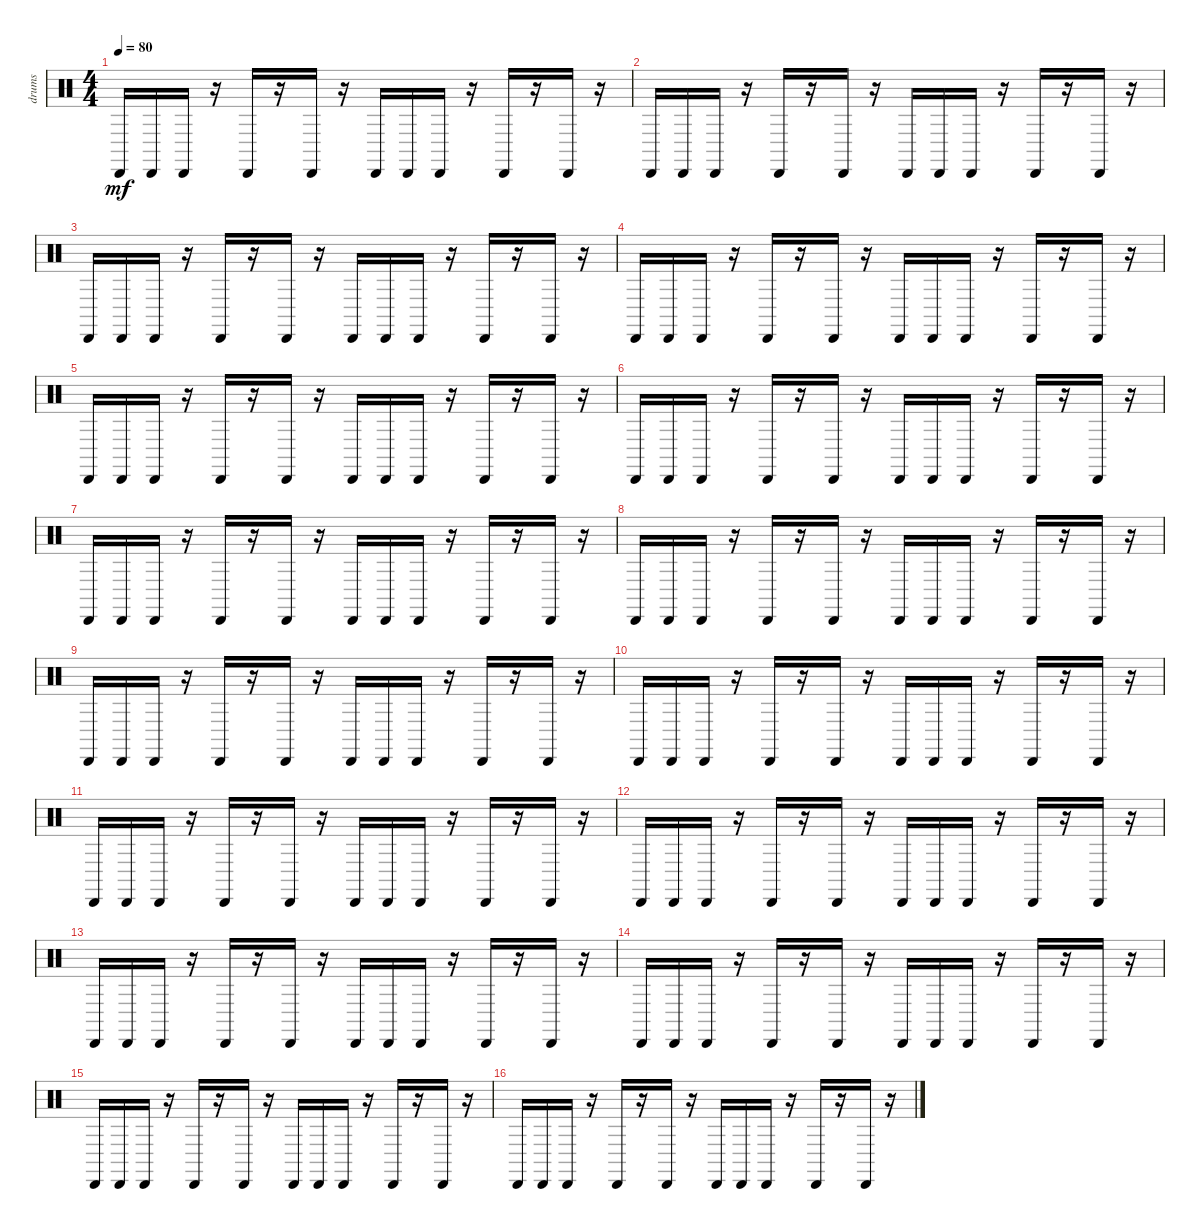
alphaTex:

\track ("drums" "drums") {instrument percussion}
\staff {score}
\articulation defaults
\ts (4 4)
\tempo 80
\clef neutral
\ks c "Cabasa (hit)".16{dy mf} "Cabasa (hit)".16 "Cabasa (hit)".16
r.16 "Cabasa (hit)".16 r.16 "Cabasa (hit)".16 r.16 "Cabasa (hit)".16 "Cabasa (hit)".16 "Cabasa (hit)".16 r.16 "Cabasa (hit)".16 r.16 "Cabasa (hit)".16 r.16 |
"Cabasa (hit)".16 "Cabasa (hit)".16 "Cabasa (hit)".16 r.16 "Cabasa (hit)".16 r.16 "Cabasa (hit)".16 r.16 "Cabasa (hit)".16 "Cabasa (hit)".16 "Cabasa (hit)".16 r.16 "Cabasa (hit)".16 r.16 "Cabasa (hit)".16 r.16 |
"Cabasa (hit)".16 "Cabasa (hit)".16 "Cabasa (hit)".16 r.16 "Cabasa (hit)".16 r.16 "Cabasa (hit)".16 r.16 "Cabasa (hit)".16 "Cabasa (hit)".16 "Cabasa (hit)".16 r.16 "Cabasa (hit)".16 r.16 "Cabasa (hit)".16 r.16 |
"Cabasa (hit)".16 "Cabasa (hit)".16 "Cabasa (hit)".16 r.16 "Cabasa (hit)".16 r.16 "Cabasa (hit)".16 r.16 "Cabasa (hit)".16 "Cabasa (hit)".16 "Cabasa (hit)".16 r.16 "Cabasa (hit)".16 r.16 "Cabasa (hit)".16 r.16 |
"Cabasa (hit)".16 "Cabasa (hit)".16 "Cabasa (hit)".16 r.16 "Cabasa (hit)".16 r.16 "Cabasa (hit)".16 r.16 "Cabasa (hit)".16 "Cabasa (hit)".16 "Cabasa (hit)".16 r.16 "Cabasa (hit)".16 r.16 "Cabasa (hit)".16 r.16 |
"Cabasa (hit)".16 "Cabasa (hit)".16 "Cabasa (hit)".16 r.16 "Cabasa (hit)".16 r.16 "Cabasa (hit)".16 r.16 "Cabasa (hit)".16 "Cabasa (hit)".16 "Cabasa (hit)".16 r.16 "Cabasa (hit)".16 r.16 "Cabasa (hit)".16 r.16 |
"Cabasa (hit)".16 "Cabasa (hit)".16 "Cabasa (hit)".16 r.16 "Cabasa (hit)".16 r.16 "Cabasa (hit)".16 r.16 "Cabasa (hit)".16 "Cabasa (hit)".16 "Cabasa (hit)".16 r.16 "Cabasa (hit)".16 r.16 "Cabasa (hit)".16 r.16 |
"Cabasa (hit)".16 "Cabasa (hit)".16 "Cabasa (hit)".16 r.16 "Cabasa (hit)".16 r.16 "Cabasa (hit)".16 r.16 "Cabasa (hit)".16 "Cabasa (hit)".16 "Cabasa (hit)".16 r.16 "Cabasa (hit)".16 r.16 "Cabasa (hit)".16 r.16 |
"Cabasa (hit)".16 "Cabasa (hit)".16 "Cabasa (hit)".16 r.16 "Cabasa (hit)".16 r.16 "Cabasa (hit)".16 r.16 "Cabasa (hit)".16 "Cabasa (hit)".16 "Cabasa (hit)".16 r.16 "Cabasa (hit)".16 r.16 "Cabasa (hit)".16 r.16 |
"Cabasa (hit)".16 "Cabasa (hit)".16 "Cabasa (hit)".16 r.16 "Cabasa (hit)".16 r.16 "Cabasa (hit)".16 r.16 "Cabasa (hit)".16 "Cabasa (hit)".16 "Cabasa (hit)".16 r.16 "Cabasa (hit)".16 r.16 "Cabasa (hit)".16 r.16 |
"Cabasa (hit)".16 "Cabasa (hit)".16 "Cabasa (hit)".16 r.16 "Cabasa (hit)".16 r.16 "Cabasa (hit)".16 r.16 "Cabasa (hit)".16 "Cabasa (hit)".16 "Cabasa (hit)".16 r.16 "Cabasa (hit)".16 r.16 "Cabasa (hit)".16 r.16 |
"Cabasa (hit)".16 "Cabasa (hit)".16 "Cabasa (hit)".16 r.16 "Cabasa (hit)".16 r.16 "Cabasa (hit)".16 r.16 "Cabasa (hit)".16 "Cabasa (hit)".16 "Cabasa (hit)".16 r.16 "Cabasa (hit)".16 r.16 "Cabasa (hit)".16 r.16 |
"Cabasa (hit)".16 "Cabasa (hit)".16 "Cabasa (hit)".16 r.16 "Cabasa (hit)".16 r.16 "Cabasa (hit)".16 r.16 "Cabasa (hit)".16 "Cabasa (hit)".16 "Cabasa (hit)".16 r.16 "Cabasa (hit)".16 r.16 "Cabasa (hit)".16 r.16 |
"Cabasa (hit)".16 "Cabasa (hit)".16 "Cabasa (hit)".16 r.16 "Cabasa (hit)".16 r.16 "Cabasa (hit)".16 r.16 "Cabasa (hit)".16 "Cabasa (hit)".16 "Cabasa (hit)".16 r.16 "Cabasa (hit)".16 r.16 "Cabasa (hit)".16 r.16 |
"Cabasa (hit)".16 "Cabasa (hit)".16 "Cabasa (hit)".16 r.16 "Cabasa (hit)".16 r.16 "Cabasa (hit)".16 r.16 "Cabasa (hit)".16 "Cabasa (hit)".16 "Cabasa (hit)".16 r.16 "Cabasa (hit)".16 r.16 "Cabasa (hit)".16 r.16 |
"Cabasa (hit)".16 "Cabasa (hit)".16 "Cabasa (hit)".16 r.16 "Cabasa (hit)".16 r.16 "Cabasa (hit)".16 r.16 "Cabasa (hit)".16 "Cabasa (hit)".16 "Cabasa (hit)".16 r.16 "Cabasa (hit)".16 r.16 "Cabasa (hit)".16 r.16
